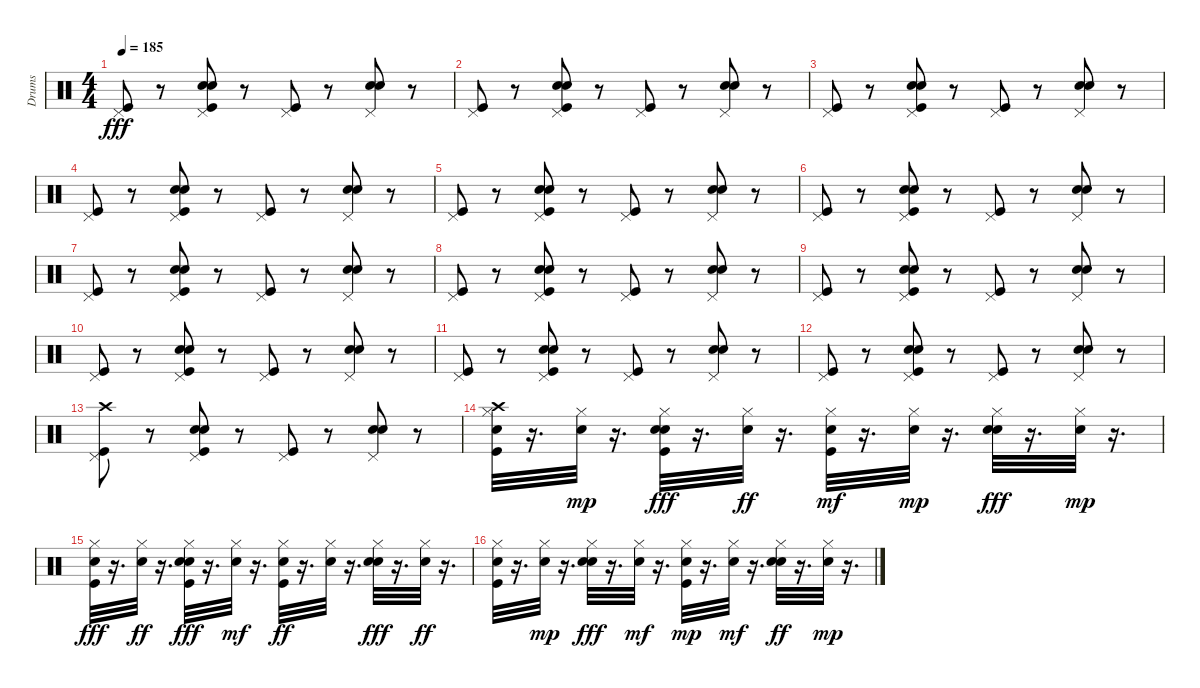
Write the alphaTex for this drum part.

\track ("Drums" "Drums") {instrument percussion}
\staff {score}
\articulation defaults
\ts (4 4)
\tempo 185
\clef neutral
\ks c
("Pedal Hi-Hat (hit)" "Kick (hit)").8{dy fff} r.8 ("Pedal Hi-Hat (hit)" "Kick (hit)" "Hand Clap (hit)" "Snare (hit) 2").8 r.8 ("Pedal Hi-Hat (hit)" "Kick (hit)").8 r.8 ("Snare (hit) 2" "Pedal Hi-Hat (hit)" "Hand Clap (hit)").8 r.8 |
("Pedal Hi-Hat (hit)" "Kick (hit)").8 r.8 ("Pedal Hi-Hat (hit)" "Kick (hit)" "Hand Clap (hit)" "Snare (hit) 2").8 r.8 ("Pedal Hi-Hat (hit)" "Kick (hit)").8 r.8 ("Snare (hit) 2" "Pedal Hi-Hat (hit)" "Hand Clap (hit)").8 r.8 |
("Pedal Hi-Hat (hit)" "Kick (hit)").8 r.8 ("Pedal Hi-Hat (hit)" "Kick (hit)" "Hand Clap (hit)" "Snare (hit) 2").8 r.8 ("Pedal Hi-Hat (hit)" "Kick (hit)").8 r.8 ("Snare (hit) 2" "Pedal Hi-Hat (hit)" "Hand Clap (hit)").8 r.8 |
("Pedal Hi-Hat (hit)" "Kick (hit)").8 r.8 ("Pedal Hi-Hat (hit)" "Kick (hit)" "Hand Clap (hit)" "Snare (hit) 2").8 r.8 ("Pedal Hi-Hat (hit)" "Kick (hit)").8 r.8 ("Snare (hit) 2" "Pedal Hi-Hat (hit)" "Hand Clap (hit)").8 r.8 |
("Pedal Hi-Hat (hit)" "Kick (hit)").8 r.8 ("Pedal Hi-Hat (hit)" "Kick (hit)" "Hand Clap (hit)" "Snare (hit) 2").8 r.8 ("Pedal Hi-Hat (hit)" "Kick (hit)").8 r.8 ("Snare (hit) 2" "Pedal Hi-Hat (hit)" "Hand Clap (hit)").8 r.8 |
("Pedal Hi-Hat (hit)" "Kick (hit)").8 r.8 ("Pedal Hi-Hat (hit)" "Kick (hit)" "Hand Clap (hit)" "Snare (hit) 2").8 r.8 ("Pedal Hi-Hat (hit)" "Kick (hit)").8 r.8 ("Snare (hit) 2" "Pedal Hi-Hat (hit)" "Hand Clap (hit)").8 r.8 |
("Pedal Hi-Hat (hit)" "Kick (hit)").8 r.8 ("Pedal Hi-Hat (hit)" "Kick (hit)" "Hand Clap (hit)" "Snare (hit) 2").8 r.8 ("Pedal Hi-Hat (hit)" "Kick (hit)").8 r.8 ("Snare (hit) 2" "Pedal Hi-Hat (hit)" "Hand Clap (hit)").8 r.8 |
("Pedal Hi-Hat (hit)" "Kick (hit)").8 r.8 ("Pedal Hi-Hat (hit)" "Kick (hit)" "Hand Clap (hit)" "Snare (hit) 2").8 r.8 ("Pedal Hi-Hat (hit)" "Kick (hit)").8 r.8 ("Snare (hit) 2" "Pedal Hi-Hat (hit)" "Hand Clap (hit)").8 r.8 |
("Pedal Hi-Hat (hit)" "Kick (hit)").8 r.8 ("Pedal Hi-Hat (hit)" "Kick (hit)" "Hand Clap (hit)" "Snare (hit) 2").8 r.8 ("Pedal Hi-Hat (hit)" "Kick (hit)").8 r.8 ("Snare (hit) 2" "Pedal Hi-Hat (hit)" "Hand Clap (hit)").8 r.8 |
("Pedal Hi-Hat (hit)" "Kick (hit)").8 r.8 ("Pedal Hi-Hat (hit)" "Kick (hit)" "Hand Clap (hit)" "Snare (hit) 2").8 r.8 ("Pedal Hi-Hat (hit)" "Kick (hit)").8 r.8 ("Snare (hit) 2" "Pedal Hi-Hat (hit)" "Hand Clap (hit)").8 r.8 |
("Pedal Hi-Hat (hit)" "Kick (hit)").8 r.8 ("Pedal Hi-Hat (hit)" "Kick (hit)" "Hand Clap (hit)" "Snare (hit) 2").8 r.8 ("Pedal Hi-Hat (hit)" "Kick (hit)").8 r.8 ("Snare (hit) 2" "Pedal Hi-Hat (hit)" "Hand Clap (hit)").8 r.8 |
("Pedal Hi-Hat (hit)" "Kick (hit)").8 r.8 ("Pedal Hi-Hat (hit)" "Kick (hit)" "Hand Clap (hit)" "Snare (hit) 2").8 r.8 ("Pedal Hi-Hat (hit)" "Kick (hit)").8 r.8 ("Snare (hit) 2" "Pedal Hi-Hat (hit)" "Hand Clap (hit)").8 r.8 |
("Pedal Hi-Hat (hit)" "Crash high (hit)" "Kick (hit)").8 r.8 ("Pedal Hi-Hat (hit)" "Kick (hit)" "Hand Clap (hit)" "Snare (hit) 2").8 r.8 ("Pedal Hi-Hat (hit)" "Kick (hit)").8 r.8 ("Snare (hit) 2" "Pedal Hi-Hat (hit)" "Hand Clap (hit)").8 r.8 |
("Crash high (hit)" "Snare (hit) 2" "Hi-Hat (closed)" "Kick (hit)").32 r.16{d} ("Hi-Hat (closed)" "Snare (hit) 2").32{dy mp} r.16{d} ("Hand Clap (hit)" "Snare (hit) 2" "Kick (hit)" "Hi-Hat (closed)").32{dy fff} r.16{d} ("Snare (hit) 2" "Hi-Hat (closed)").32{dy ff} r.16{d} ("Kick (hit)" "Hi-Hat (closed)" "Snare (hit) 2").32{dy mf} r.16{d} ("Hi-Hat (closed)" "Snare (hit) 2").32{dy mp} r.16{d} ("Hand Clap (hit)" "Hi-Hat (closed)" "Snare (hit) 2").32{dy fff} r.16{d} ("Hi-Hat (closed)" "Snare (hit) 2").32{dy mp} r.16{d} |
("Snare (hit) 2" "Hi-Hat (closed)" "Kick (hit)").32{dy fff} r.16{d} ("Snare (hit) 2" "Hi-Hat (closed)").32{dy ff} r.16{d} ("Hi-Hat (closed)" "Hand Clap (hit)" "Kick (hit)" "Snare (hit) 2").32{dy fff} r.16{d} ("Hi-Hat (closed)" "Snare (hit) 2").32{dy mf} r.16{d} ("Kick (hit)" "Snare (hit) 2" "Hi-Hat (closed)").32{dy ff} r.16{d} ("Snare (hit) 2" "Hi-Hat (closed)").32 r.16{d} ("Hi-Hat (closed)" "Hand Clap (hit)" "Snare (hit) 2").32{dy fff} r.16{d} ("Snare (hit) 2" "Hi-Hat (closed)").32{dy ff} r.16{d} |
("Kick (hit)" "Snare (hit) 2" "Hi-Hat (closed)").32 r.16{d} ("Hi-Hat (closed)" "Snare (hit) 2").32{dy mp} r.16{d} ("Snare (hit) 2" "Hi-Hat (closed)" "Hand Clap (hit)").32{dy fff} r.16{d} ("Hi-Hat (closed)" "Snare (hit) 2").32{dy mf} r.16{d} ("Kick (hit)" "Hi-Hat (closed)" "Snare (hit) 2").32{dy mp} r.16{d} ("Hi-Hat (closed)" "Snare (hit) 2").32{dy mf} r.16{d} ("Hand Clap (hit)" "Snare (hit) 2" "Hi-Hat (closed)").32{dy ff} r.16{d} ("Hi-Hat (closed)" "Snare (hit) 2").32{dy mp} r.16{d}
